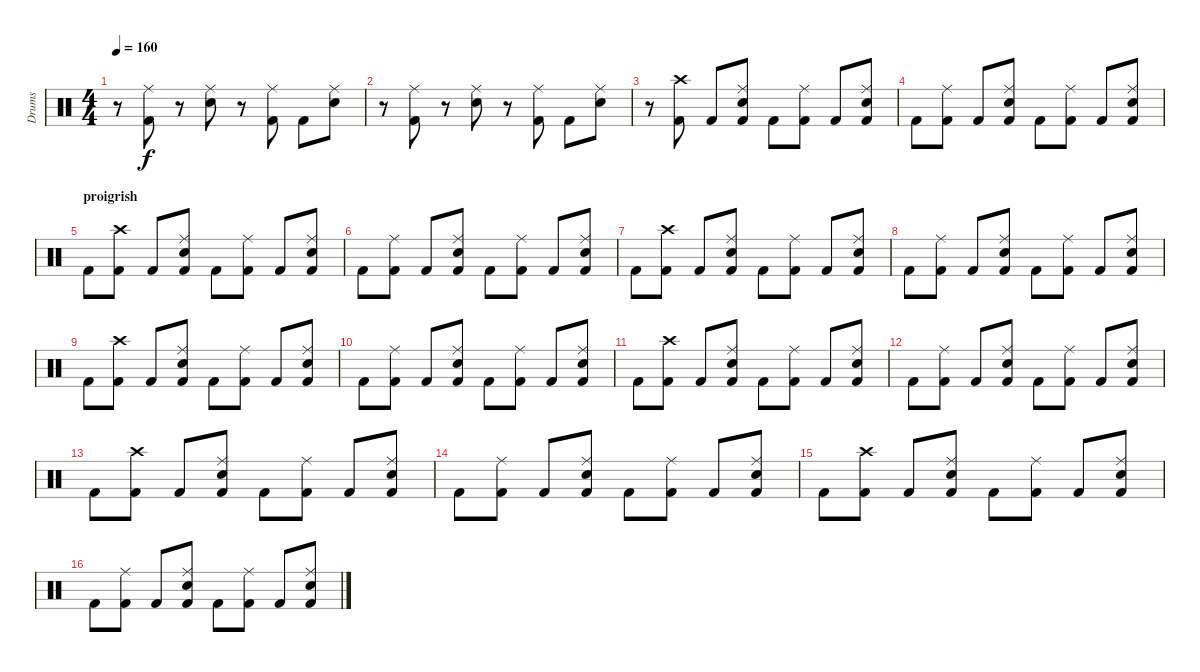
\track ("Drums" "Drums") {instrument percussion}
\staff {score}
\articulation defaults
\ts (4 4)
\tempo 160
\clef neutral
\ks c
r.8{dy f} ("Kick (hit) 2" "Ride (middle)").8 r.8 ("Snare (hit) 2" "Ride (middle)").8 r.8 ("Kick (hit) 2" "Ride (middle)").8 "Kick (hit) 2".8 ("Snare (hit) 2" "Ride (middle)").8 |
r.8 ("Kick (hit) 2" "Ride (middle)").8 r.8 ("Snare (hit) 2" "Ride (middle)").8 r.8 ("Kick (hit) 2" "Ride (middle)").8 "Kick (hit) 2".8 ("Snare (hit) 2" "Ride (middle)").8 |
r.8 ("Kick (hit) 2" "Crash high (hit)").8 "Kick (hit) 2".8 ("Snare (hit) 2" "Kick (hit) 2" "Ride (middle)").8 "Kick (hit) 2".8 ("Kick (hit) 2" "Ride (middle)").8 "Kick (hit) 2".8 ("Snare (hit) 2" "Kick (hit) 2" "Ride (middle)").8 |
"Kick (hit) 2".8 ("Kick (hit) 2" "Ride (middle)").8 "Kick (hit) 2".8 ("Snare (hit) 2" "Kick (hit) 2" "Ride (middle)").8 "Kick (hit) 2".8 ("Kick (hit) 2" "Ride (middle)").8 "Kick (hit) 2".8 ("Snare (hit) 2" "Kick (hit) 2" "Ride (middle)").8 |
\section ("" "proigrish")
"Kick (hit) 2".8 ("Kick (hit) 2" "Crash high (hit)").8 "Kick (hit) 2".8 ("Snare (hit) 2" "Kick (hit) 2" "Ride (middle)").8 "Kick (hit) 2".8 ("Kick (hit) 2" "Ride (middle)").8 "Kick (hit) 2".8 ("Snare (hit) 2" "Kick (hit) 2" "Ride (middle)").8 |
"Kick (hit) 2".8 ("Kick (hit) 2" "Ride (middle)").8 "Kick (hit) 2".8 ("Snare (hit) 2" "Kick (hit) 2" "Ride (middle)").8 "Kick (hit) 2".8 ("Kick (hit) 2" "Ride (middle)").8 "Kick (hit) 2".8 ("Snare (hit) 2" "Kick (hit) 2" "Ride (middle)").8 |
"Kick (hit) 2".8 ("Kick (hit) 2" "Crash high (hit)").8 "Kick (hit) 2".8 ("Snare (hit) 2" "Kick (hit) 2" "Ride (middle)").8 "Kick (hit) 2".8 ("Kick (hit) 2" "Ride (middle)").8 "Kick (hit) 2".8 ("Snare (hit) 2" "Kick (hit) 2" "Ride (middle)").8 |
"Kick (hit) 2".8 ("Kick (hit) 2" "Ride (middle)").8 "Kick (hit) 2".8 ("Snare (hit) 2" "Kick (hit) 2" "Ride (middle)").8 "Kick (hit) 2".8 ("Kick (hit) 2" "Ride (middle)").8 "Kick (hit) 2".8 ("Snare (hit) 2" "Kick (hit) 2" "Ride (middle)").8 |
"Kick (hit) 2".8 ("Kick (hit) 2" "Crash high (hit)").8 "Kick (hit) 2".8 ("Snare (hit) 2" "Kick (hit) 2" "Ride (middle)").8 "Kick (hit) 2".8 ("Kick (hit) 2" "Ride (middle)").8 "Kick (hit) 2".8 ("Snare (hit) 2" "Kick (hit) 2" "Ride (middle)").8 |
"Kick (hit) 2".8 ("Kick (hit) 2" "Ride (middle)").8 "Kick (hit) 2".8 ("Snare (hit) 2" "Kick (hit) 2" "Ride (middle)").8 "Kick (hit) 2".8 ("Kick (hit) 2" "Ride (middle)").8 "Kick (hit) 2".8 ("Snare (hit) 2" "Kick (hit) 2" "Ride (middle)").8 |
"Kick (hit) 2".8 ("Kick (hit) 2" "Crash high (hit)").8 "Kick (hit) 2".8 ("Snare (hit) 2" "Kick (hit) 2" "Ride (middle)").8 "Kick (hit) 2".8 ("Kick (hit) 2" "Ride (middle)").8 "Kick (hit) 2".8 ("Snare (hit) 2" "Kick (hit) 2" "Ride (middle)").8 |
"Kick (hit) 2".8 ("Kick (hit) 2" "Ride (middle)").8 "Kick (hit) 2".8 ("Snare (hit) 2" "Kick (hit) 2" "Ride (middle)").8 "Kick (hit) 2".8 ("Kick (hit) 2" "Ride (middle)").8 "Kick (hit) 2".8 ("Snare (hit) 2" "Kick (hit) 2" "Ride (middle)").8 |
"Kick (hit) 2".8 ("Kick (hit) 2" "Crash high (hit)").8 "Kick (hit) 2".8 ("Snare (hit) 2" "Kick (hit) 2" "Ride (middle)").8 "Kick (hit) 2".8 ("Kick (hit) 2" "Ride (middle)").8 "Kick (hit) 2".8 ("Snare (hit) 2" "Kick (hit) 2" "Ride (middle)").8 |
"Kick (hit) 2".8 ("Kick (hit) 2" "Ride (middle)").8 "Kick (hit) 2".8 ("Snare (hit) 2" "Kick (hit) 2" "Ride (middle)").8 "Kick (hit) 2".8 ("Kick (hit) 2" "Ride (middle)").8 "Kick (hit) 2".8 ("Snare (hit) 2" "Kick (hit) 2" "Ride (middle)").8 |
"Kick (hit) 2".8 ("Kick (hit) 2" "Crash high (hit)").8 "Kick (hit) 2".8 ("Snare (hit) 2" "Kick (hit) 2" "Ride (middle)").8 "Kick (hit) 2".8 ("Kick (hit) 2" "Ride (middle)").8 "Kick (hit) 2".8 ("Snare (hit) 2" "Kick (hit) 2" "Ride (middle)").8 |
"Kick (hit) 2".8 ("Kick (hit) 2" "Ride (middle)").8 "Kick (hit) 2".8 ("Snare (hit) 2" "Kick (hit) 2" "Ride (middle)").8 "Kick (hit) 2".8 ("Kick (hit) 2" "Ride (middle)").8 "Kick (hit) 2".8 ("Snare (hit) 2" "Kick (hit) 2" "Ride (middle)").8
